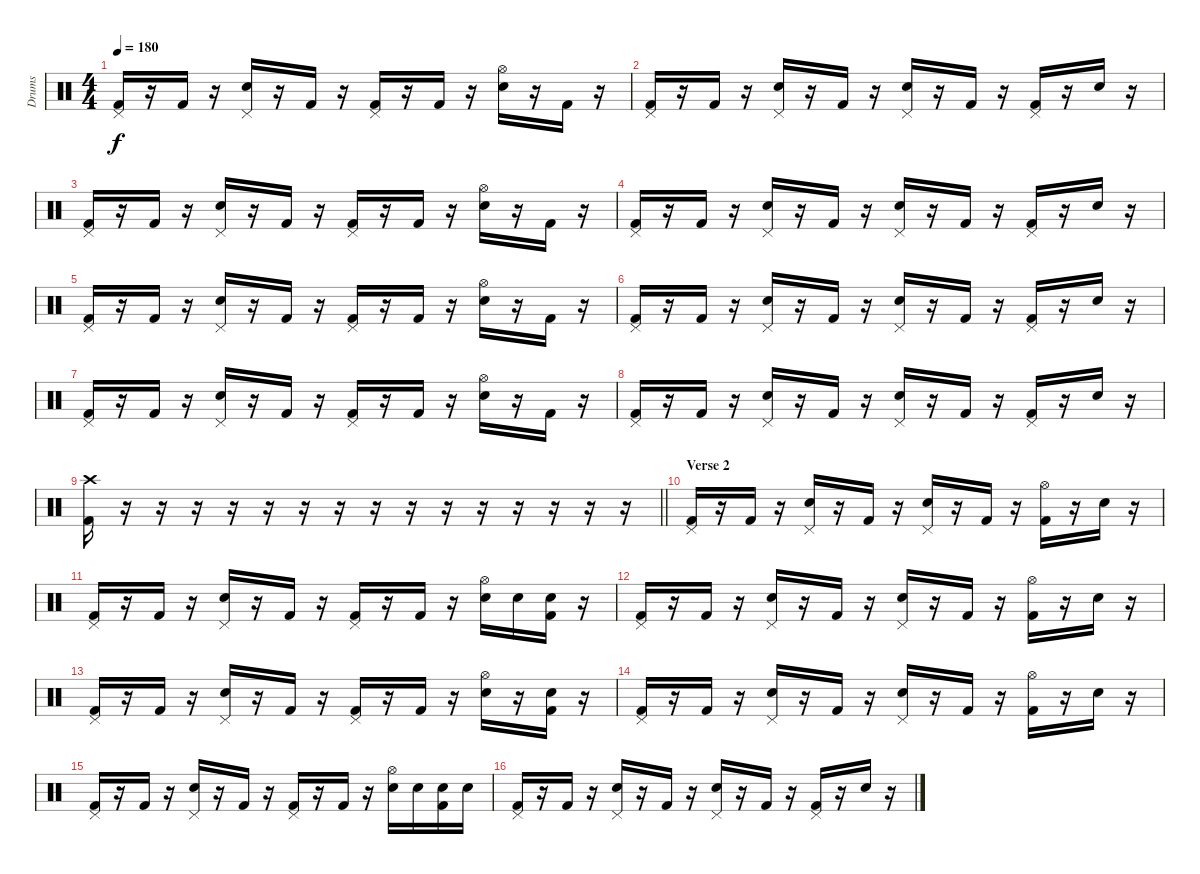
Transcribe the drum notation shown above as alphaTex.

\track ("Drums" "Drums") {instrument percussion}
\staff {score}
\articulation defaults
\ts (4 4)
\tempo 180
\clef neutral
\ks c
("Pedal Hi-Hat (hit)" "Kick (hit) 2").16{dy f} r.16 "Kick (hit) 2".16 r.16 ("Pedal Hi-Hat (hit)" "Electric Snare (hit)").16 r.16 "Kick (hit) 2".16 r.16 ("Pedal Hi-Hat (hit)" "Kick (hit) 2").16 r.16 "Kick (hit) 2".16 r.16 ("Hi-Hat (open)" "Electric Snare (hit)").16 r.16 "Kick (hit) 2".16 r.16 |
("Pedal Hi-Hat (hit)" "Kick (hit) 2").16 r.16 "Kick (hit) 2".16 r.16 ("Pedal Hi-Hat (hit)" "Electric Snare (hit)").16 r.16 "Kick (hit) 2".16 r.16 ("Pedal Hi-Hat (hit)" "Electric Snare (hit)").16 r.16 "Kick (hit) 2".16 r.16 ("Pedal Hi-Hat (hit)" "Kick (hit) 2").16 r.16 "Electric Snare (hit)".16 r.16 |
("Pedal Hi-Hat (hit)" "Kick (hit) 2").16 r.16 "Kick (hit) 2".16 r.16 ("Pedal Hi-Hat (hit)" "Electric Snare (hit)").16 r.16 "Kick (hit) 2".16 r.16 ("Pedal Hi-Hat (hit)" "Kick (hit) 2").16 r.16 "Kick (hit) 2".16 r.16 ("Hi-Hat (open)" "Electric Snare (hit)").16 r.16 "Kick (hit) 2".16 r.16 |
("Pedal Hi-Hat (hit)" "Kick (hit) 2").16 r.16 "Kick (hit) 2".16 r.16 ("Pedal Hi-Hat (hit)" "Electric Snare (hit)").16 r.16 "Kick (hit) 2".16 r.16 ("Pedal Hi-Hat (hit)" "Electric Snare (hit)").16 r.16 "Kick (hit) 2".16 r.16 ("Pedal Hi-Hat (hit)" "Kick (hit) 2").16 r.16 "Electric Snare (hit)".16 r.16 |
("Pedal Hi-Hat (hit)" "Kick (hit) 2").16 r.16 "Kick (hit) 2".16 r.16 ("Pedal Hi-Hat (hit)" "Electric Snare (hit)").16 r.16 "Kick (hit) 2".16 r.16 ("Pedal Hi-Hat (hit)" "Kick (hit) 2").16 r.16 "Kick (hit) 2".16 r.16 ("Hi-Hat (open)" "Electric Snare (hit)").16 r.16 "Kick (hit) 2".16 r.16 |
("Pedal Hi-Hat (hit)" "Kick (hit) 2").16 r.16 "Kick (hit) 2".16 r.16 ("Pedal Hi-Hat (hit)" "Electric Snare (hit)").16 r.16 "Kick (hit) 2".16 r.16 ("Pedal Hi-Hat (hit)" "Electric Snare (hit)").16 r.16 "Kick (hit) 2".16 r.16 ("Pedal Hi-Hat (hit)" "Kick (hit) 2").16 r.16 "Electric Snare (hit)".16 r.16 |
("Pedal Hi-Hat (hit)" "Kick (hit) 2").16 r.16 "Kick (hit) 2".16 r.16 ("Pedal Hi-Hat (hit)" "Electric Snare (hit)").16 r.16 "Kick (hit) 2".16 r.16 ("Pedal Hi-Hat (hit)" "Kick (hit) 2").16 r.16 "Kick (hit) 2".16 r.16 ("Hi-Hat (open)" "Electric Snare (hit)").16 r.16 "Kick (hit) 2".16 r.16 |
("Pedal Hi-Hat (hit)" "Kick (hit) 2").16 r.16 "Kick (hit) 2".16 r.16 ("Pedal Hi-Hat (hit)" "Electric Snare (hit)").16 r.16 "Kick (hit) 2".16 r.16 ("Pedal Hi-Hat (hit)" "Electric Snare (hit)").16 r.16 "Kick (hit) 2".16 r.16 ("Pedal Hi-Hat (hit)" "Kick (hit) 2").16 r.16 "Electric Snare (hit)".16 r.16 |
\barLineRight lightlight
("Crash high (hit)" "Kick (hit) 2").16 r.16 r.16 r.16 r.16 r.16 r.16 r.16 r.16 r.16 r.16 r.16 r.16 r.16 r.16 r.16 |
\section ("" "Verse 2")
("Pedal Hi-Hat (hit)" "Kick (hit) 2").16{volume 11} r.16 "Kick (hit) 2".16 r.16 ("Pedal Hi-Hat (hit)" "Electric Snare (hit)").16 r.16 "Kick (hit) 2".16 r.16 ("Pedal Hi-Hat (hit)" "Electric Snare (hit)").16 r.16 "Kick (hit) 2".16 r.16 ("Hi-Hat (open)" "Kick (hit) 2").16 r.16 "Electric Snare (hit)".16 r.16 |
("Pedal Hi-Hat (hit)" "Kick (hit) 2").16 r.16 "Kick (hit) 2".16 r.16 ("Pedal Hi-Hat (hit)" "Electric Snare (hit)").16 r.16 "Kick (hit) 2".16 r.16 ("Pedal Hi-Hat (hit)" "Kick (hit) 2").16 r.16 "Kick (hit) 2".16 r.16 ("Hi-Hat (open)" "Electric Snare (hit)").16 "Electric Snare (hit)".16 ("Electric Snare (hit)" "Kick (hit) 2").16 r.16 |
("Pedal Hi-Hat (hit)" "Kick (hit) 2").16 r.16 "Kick (hit) 2".16 r.16 ("Pedal Hi-Hat (hit)" "Electric Snare (hit)").16 r.16 "Kick (hit) 2".16 r.16 ("Pedal Hi-Hat (hit)" "Electric Snare (hit)").16 r.16 "Kick (hit) 2".16 r.16 ("Hi-Hat (open)" "Kick (hit) 2").16 r.16 "Electric Snare (hit)".16 r.16 |
("Pedal Hi-Hat (hit)" "Kick (hit) 2").16 r.16 "Kick (hit) 2".16 r.16 ("Pedal Hi-Hat (hit)" "Electric Snare (hit)").16 r.16 "Kick (hit) 2".16 r.16 ("Pedal Hi-Hat (hit)" "Kick (hit) 2").16 r.16 "Kick (hit) 2".16 r.16 ("Hi-Hat (open)" "Electric Snare (hit)").16 r.16 ("Electric Snare (hit)" "Kick (hit) 2").16 r.16 |
("Pedal Hi-Hat (hit)" "Kick (hit) 2").16 r.16 "Kick (hit) 2".16 r.16 ("Pedal Hi-Hat (hit)" "Electric Snare (hit)").16 r.16 "Kick (hit) 2".16 r.16 ("Pedal Hi-Hat (hit)" "Electric Snare (hit)").16 r.16 "Kick (hit) 2".16 r.16 ("Hi-Hat (open)" "Kick (hit) 2").16 r.16 "Electric Snare (hit)".16 r.16 |
("Pedal Hi-Hat (hit)" "Kick (hit) 2").16 r.16 "Kick (hit) 2".16 r.16 ("Pedal Hi-Hat (hit)" "Electric Snare (hit)").16 r.16 "Kick (hit) 2".16 r.16 ("Pedal Hi-Hat (hit)" "Kick (hit) 2").16 r.16 "Kick (hit) 2".16 r.16 ("Hi-Hat (open)" "Electric Snare (hit)").16 "Electric Snare (hit)".16 ("Electric Snare (hit)" "Kick (hit) 2").16 "Electric Snare (hit)".16 |
("Pedal Hi-Hat (hit)" "Kick (hit) 2").16 r.16 "Kick (hit) 2".16 r.16 ("Pedal Hi-Hat (hit)" "Electric Snare (hit)").16 r.16 "Kick (hit) 2".16 r.16 ("Pedal Hi-Hat (hit)" "Electric Snare (hit)").16 r.16 "Kick (hit) 2".16 r.16 ("Pedal Hi-Hat (hit)" "Kick (hit) 2").16 r.16 "Electric Snare (hit)".16 r.16
